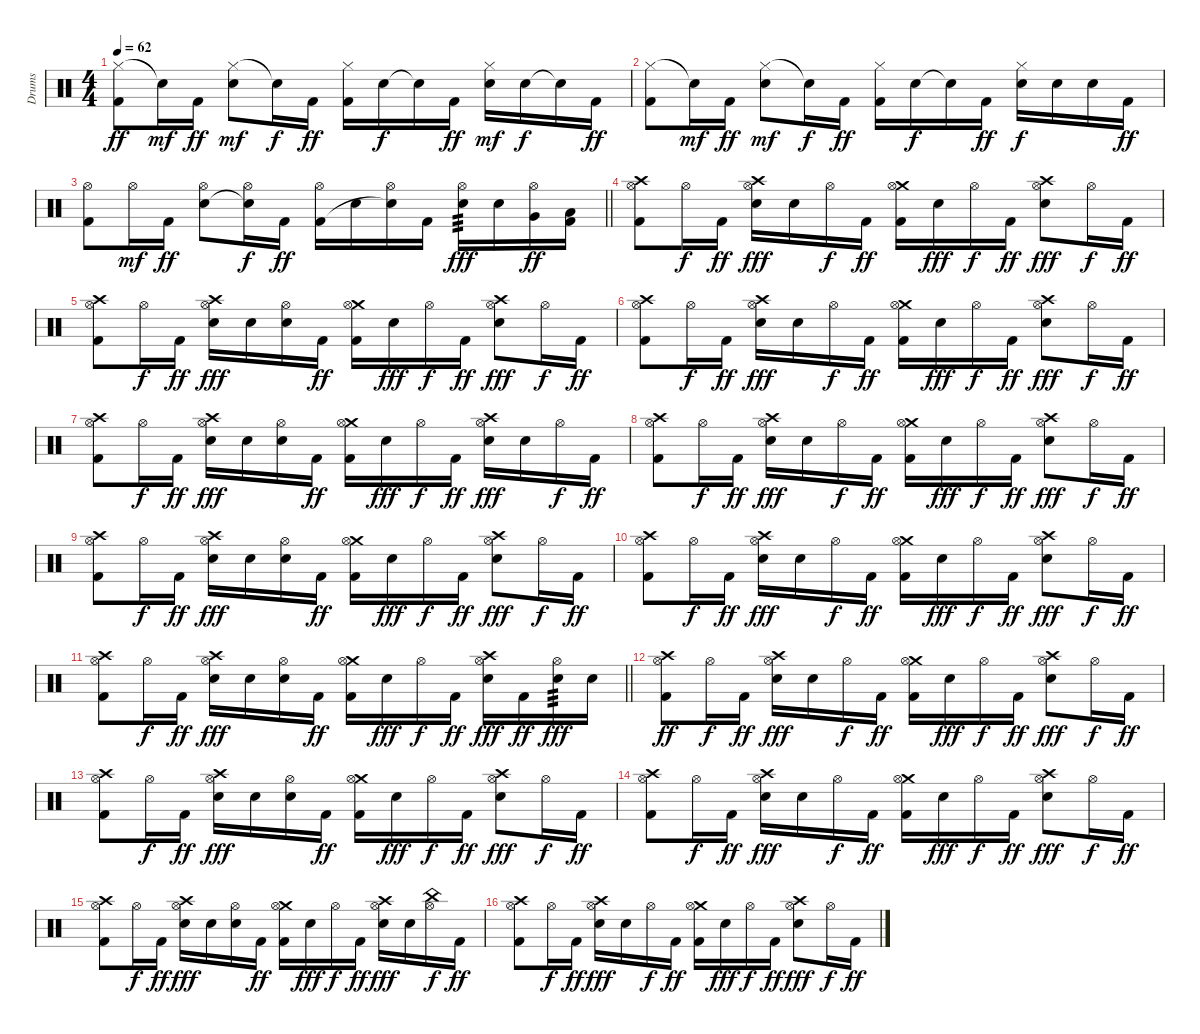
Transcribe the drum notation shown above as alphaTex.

\track ("Drums" "Drums") {instrument percussion}
\staff {score}
\articulation defaults
\ts (4 4)
\tempo 62
\clef neutral
\ks c
("Hi-Hat (closed)" "Kick (hit) 2").8{dy ff} "Snare (hit)"{t}.16{dy mf} "Kick (hit) 2".16{dy ff} ("Hi-Hat (closed)" "Snare (hit) 2").8{dy mf} "Snare (hit)"{t}.16{dy f} "Kick (hit) 2".16{dy ff} ("Hi-Hat (closed)" "Kick (hit) 2").16 "Snare (hit) 2".16{dy f} "Snare (hit)"{t}.16 "Kick (hit) 2".16{dy ff} ("Hi-Hat (closed)" "Snare (hit) 2").16{dy mf} "Snare (hit) 2".16{dy f} "Snare (hit) 2"{t}.16 "Kick (hit) 2".16{dy ff} |
("Hi-Hat (closed)" "Kick (hit) 2").8 "Snare (hit)"{t}.16{dy mf} "Kick (hit) 2".16{dy ff} ("Hi-Hat (closed)" "Snare (hit) 2").8{dy mf} "Snare (hit)"{t}.16{dy f} "Kick (hit) 2".16{dy ff} ("Hi-Hat (closed)" "Kick (hit) 2").16 "Snare (hit) 2".16{dy f} "Snare (hit)"{t}.16 "Kick (hit) 2".16{dy ff} ("Hi-Hat (closed)" "Snare (hit) 2").16{dy f} "Snare (hit) 2".16 "Snare (hit) 2".16 "Kick (hit) 2".16{dy ff} |
\barLineRight lightlight
("Hi-Hat (open)" "Kick (hit) 2").8 "Hi-Hat (open)".16{dy mf} "Kick (hit) 2".16{dy ff} ("Hi-Hat (open)" "Snare (hit) 2").8 ("Hi-Hat (open)" "Snare (hit)"{t}).16{dy f} "Kick (hit) 2".16{dy ff} ("Hi-Hat (open)" "Kick (hit) 2").16 "Snare (hit) 2".16 ("Hi-Hat (open)" "Snare (hit)"{t}).16 "Kick (hit) 2".16 ("Hi-Hat (open)" "Snare (hit) 2").16{tp 3 dy fff} "Snare (hit) 2".16 ("Hi-Hat (open)" "Very Low Tom (hit)").16{dy ff} ("Low Floor Tom (hit)" "Kick (hit) 2").16 |
\section ("" "")
("Crash high (hit)" "Hi-Hat (open)" "Kick (hit) 2").8 "Hi-Hat (open)".16{dy f} "Kick (hit) 2".16{dy ff} ("Crash high (hit)" "Hi-Hat (open)" "Snare (hit) 2").16{dy fff} "Snare (hit) 2".16 "Hi-Hat (open)".16{dy f} "Kick (hit) 2".16{dy ff} ("Crash medium (hit)" "Hi-Hat (open)" "Kick (hit) 2").16 "Snare (hit) 2".16{dy fff} "Hi-Hat (open)".16{dy f} "Kick (hit) 2".16{dy ff} ("Crash high (hit)" "Hi-Hat (open)" "Snare (hit) 2").8{dy fff} "Hi-Hat (open)".16{dy f} "Kick (hit) 2".16{dy ff} |
("Crash high (hit)" "Hi-Hat (open)" "Kick (hit) 2").8 "Hi-Hat (open)".16{dy f} "Kick (hit) 2".16{dy ff} ("Crash high (hit)" "Hi-Hat (open)" "Snare (hit) 2").16{dy fff} "Snare (hit) 2".16 ("Hi-Hat (open)" "Snare (hit) 2").16 "Kick (hit) 2".16{dy ff} ("Crash medium (hit)" "Hi-Hat (open)" "Kick (hit) 2").16 "Snare (hit) 2".16{dy fff} "Hi-Hat (open)".16{dy f} "Kick (hit) 2".16{dy ff} ("Crash high (hit)" "Hi-Hat (open)" "Snare (hit) 2").8{dy fff} "Hi-Hat (open)".16{dy f} "Kick (hit) 2".16{dy ff} |
("Crash high (hit)" "Hi-Hat (open)" "Kick (hit) 2").8 "Hi-Hat (open)".16{dy f} "Kick (hit) 2".16{dy ff} ("Crash high (hit)" "Hi-Hat (open)" "Snare (hit) 2").16{dy fff} "Snare (hit) 2".16 "Hi-Hat (open)".16{dy f} "Kick (hit) 2".16{dy ff} ("Crash medium (hit)" "Hi-Hat (open)" "Kick (hit) 2").16 "Snare (hit) 2".16{dy fff} "Hi-Hat (open)".16{dy f} "Kick (hit) 2".16{dy ff} ("Crash high (hit)" "Hi-Hat (open)" "Snare (hit) 2").8{dy fff} "Hi-Hat (open)".16{dy f} "Kick (hit) 2".16{dy ff} |
("Crash high (hit)" "Hi-Hat (open)" "Kick (hit) 2").8 "Hi-Hat (open)".16{dy f} "Kick (hit) 2".16{dy ff} ("Crash high (hit)" "Hi-Hat (open)" "Snare (hit) 2").16{dy fff} "Snare (hit) 2".16 ("Hi-Hat (open)" "Snare (hit) 2").16 "Kick (hit) 2".16{dy ff} ("Crash medium (hit)" "Hi-Hat (open)" "Kick (hit) 2").16 "Snare (hit) 2".16{dy fff} "Hi-Hat (open)".16{dy f} "Kick (hit) 2".16{dy ff} ("Crash high (hit)" "Hi-Hat (open)" "Snare (hit) 2").16{dy fff} "Snare (hit) 2".16 "Hi-Hat (open)".16{dy f} "Kick (hit) 2".16{dy ff} |
("Crash high (hit)" "Hi-Hat (open)" "Kick (hit) 2").8 "Hi-Hat (open)".16{dy f} "Kick (hit) 2".16{dy ff} ("Crash high (hit)" "Hi-Hat (open)" "Snare (hit) 2").16{dy fff} "Snare (hit) 2".16 "Hi-Hat (open)".16{dy f} "Kick (hit) 2".16{dy ff} ("Crash medium (hit)" "Hi-Hat (open)" "Kick (hit) 2").16 "Snare (hit) 2".16{dy fff} "Hi-Hat (open)".16{dy f} "Kick (hit) 2".16{dy ff} ("Crash high (hit)" "Hi-Hat (open)" "Snare (hit) 2").8{dy fff} "Hi-Hat (open)".16{dy f} "Kick (hit) 2".16{dy ff} |
("Crash high (hit)" "Hi-Hat (open)" "Kick (hit) 2").8 "Hi-Hat (open)".16{dy f} "Kick (hit) 2".16{dy ff} ("Crash high (hit)" "Hi-Hat (open)" "Snare (hit) 2").16{dy fff} "Snare (hit) 2".16 ("Hi-Hat (open)" "Snare (hit) 2").16 "Kick (hit) 2".16{dy ff} ("Crash medium (hit)" "Hi-Hat (open)" "Kick (hit) 2").16 "Snare (hit) 2".16{dy fff} "Hi-Hat (open)".16{dy f} "Kick (hit) 2".16{dy ff} ("Crash high (hit)" "Hi-Hat (open)" "Snare (hit) 2").8{dy fff} "Hi-Hat (open)".16{dy f} "Kick (hit) 2".16{dy ff} |
("Crash high (hit)" "Hi-Hat (open)" "Kick (hit) 2").8 "Hi-Hat (open)".16{dy f} "Kick (hit) 2".16{dy ff} ("Crash high (hit)" "Hi-Hat (open)" "Snare (hit) 2").16{dy fff} "Snare (hit) 2".16 "Hi-Hat (open)".16{dy f} "Kick (hit) 2".16{dy ff} ("Crash medium (hit)" "Hi-Hat (open)" "Kick (hit) 2").16 "Snare (hit) 2".16{dy fff} "Hi-Hat (open)".16{dy f} "Kick (hit) 2".16{dy ff} ("Crash high (hit)" "Hi-Hat (open)" "Snare (hit) 2").8{dy fff} "Hi-Hat (open)".16{dy f} "Kick (hit) 2".16{dy ff} |
\barLineRight lightlight
("Crash high (hit)" "Hi-Hat (open)" "Kick (hit) 2").8 "Hi-Hat (open)".16{dy f} "Kick (hit) 2".16{dy ff} ("Crash high (hit)" "Hi-Hat (open)" "Snare (hit) 2").16{dy fff} "Snare (hit) 2".16 ("Hi-Hat (open)" "Snare (hit) 2").16 "Kick (hit) 2".16{dy ff} ("Crash medium (hit)" "Hi-Hat (open)" "Kick (hit) 2").16 "Snare (hit) 2".16{dy fff} "Hi-Hat (open)".16{dy f} "Kick (hit) 2".16{dy ff} ("Crash high (hit)" "Hi-Hat (open)" "Snare (hit) 2").16{dy fff} "Kick (hit) 2".16{dy ff} ("Hi-Hat (open)" "Snare (hit) 2").16{tp 3 dy fff} "Snare (hit) 2".16 |
\section ("" "")
("Crash high (hit)" "Hi-Hat (open)" "Kick (hit) 2").8{dy ff} "Hi-Hat (open)".16{dy f} "Kick (hit) 2".16{dy ff} ("Crash high (hit)" "Hi-Hat (open)" "Snare (hit) 2").16{dy fff} "Snare (hit) 2".16 "Hi-Hat (open)".16{dy f} "Kick (hit) 2".16{dy ff} ("Crash medium (hit)" "Hi-Hat (open)" "Kick (hit) 2").16 "Snare (hit) 2".16{dy fff} "Hi-Hat (open)".16{dy f} "Kick (hit) 2".16{dy ff} ("Crash high (hit)" "Hi-Hat (open)" "Snare (hit) 2").8{dy fff} "Hi-Hat (open)".16{dy f} "Kick (hit) 2".16{dy ff} |
("Crash high (hit)" "Hi-Hat (open)" "Kick (hit) 2").8 "Hi-Hat (open)".16{dy f} "Kick (hit) 2".16{dy ff} ("Crash high (hit)" "Hi-Hat (open)" "Snare (hit) 2").16{dy fff} "Snare (hit) 2".16 ("Hi-Hat (open)" "Snare (hit) 2").16 "Kick (hit) 2".16{dy ff} ("Crash medium (hit)" "Hi-Hat (open)" "Kick (hit) 2").16 "Snare (hit) 2".16{dy fff} "Hi-Hat (open)".16{dy f} "Kick (hit) 2".16{dy ff} ("Crash high (hit)" "Hi-Hat (open)" "Snare (hit) 2").8{dy fff} "Hi-Hat (open)".16{dy f} "Kick (hit) 2".16{dy ff} |
("Crash high (hit)" "Hi-Hat (open)" "Kick (hit) 2").8 "Hi-Hat (open)".16{dy f} "Kick (hit) 2".16{dy ff} ("Crash high (hit)" "Hi-Hat (open)" "Snare (hit) 2").16{dy fff} "Snare (hit) 2".16 "Hi-Hat (open)".16{dy f} "Kick (hit) 2".16{dy ff} ("Crash medium (hit)" "Hi-Hat (open)" "Kick (hit) 2").16 "Snare (hit) 2".16{dy fff} "Hi-Hat (open)".16{dy f} "Kick (hit) 2".16{dy ff} ("Crash high (hit)" "Hi-Hat (open)" "Snare (hit) 2").8{dy fff} "Hi-Hat (open)".16{dy f} "Kick (hit) 2".16{dy ff} |
("Crash high (hit)" "Hi-Hat (open)" "Kick (hit) 2").8 "Hi-Hat (open)".16{dy f} "Kick (hit) 2".16{dy ff} ("Crash high (hit)" "Hi-Hat (open)" "Snare (hit) 2").16{dy fff} "Snare (hit) 2".16 ("Hi-Hat (open)" "Snare (hit) 2").16 "Kick (hit) 2".16{dy ff} ("Crash medium (hit)" "Hi-Hat (open)" "Kick (hit) 2").16 "Snare (hit) 2".16{dy fff} "Hi-Hat (open)".16{dy f} "Kick (hit) 2".16{dy ff} ("Crash high (hit)" "Hi-Hat (open)" "Snare (hit) 2").16{dy fff} "Snare (hit) 2".16 ("China (hit)" "Hi-Hat (open)").16{dy f} "Kick (hit) 2".16{dy ff} |
("Crash high (hit)" "Hi-Hat (open)" "Kick (hit) 2").8 "Hi-Hat (open)".16{dy f} "Kick (hit) 2".16{dy ff} ("Crash high (hit)" "Hi-Hat (open)" "Snare (hit) 2").16{dy fff} "Snare (hit) 2".16 "Hi-Hat (open)".16{dy f} "Kick (hit) 2".16{dy ff} ("Crash medium (hit)" "Hi-Hat (open)" "Kick (hit) 2").16 "Snare (hit) 2".16{dy fff} "Hi-Hat (open)".16{dy f} "Kick (hit) 2".16{dy ff} ("Crash high (hit)" "Hi-Hat (open)" "Snare (hit) 2").8{dy fff} "Hi-Hat (open)".16{dy f} "Kick (hit) 2".16{dy ff}
